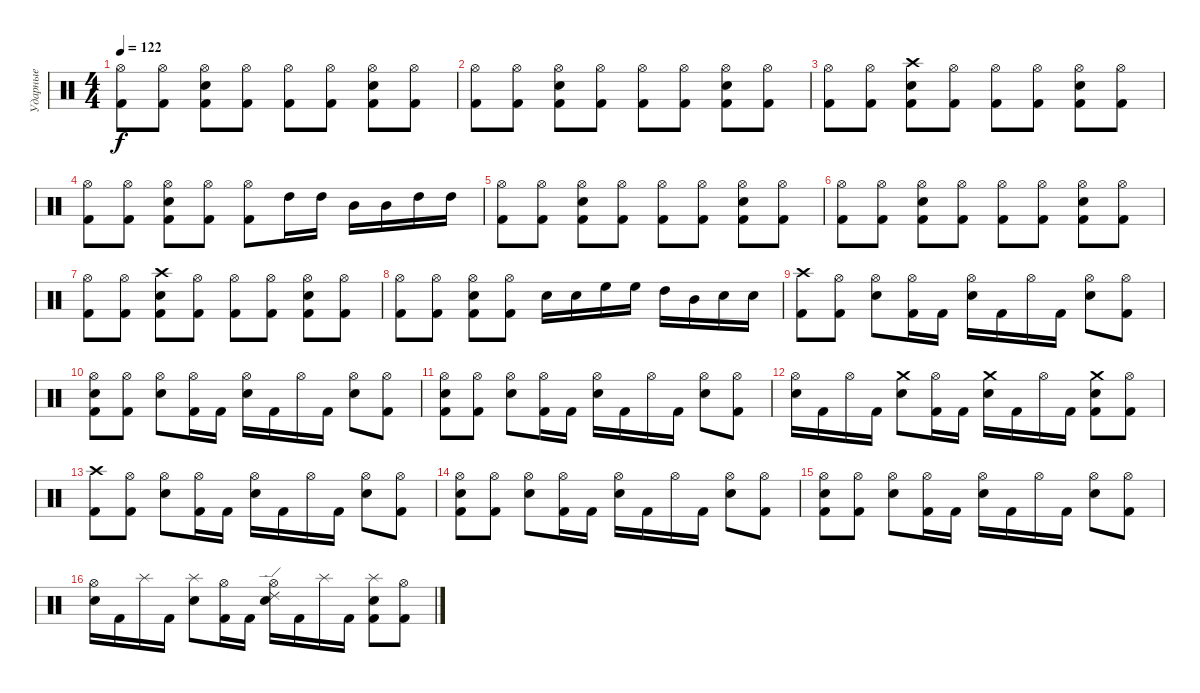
\track ("Ударные" "Ударные") {instrument percussion}
\staff {score}
\articulation defaults
\ts (4 4)
\tempo 122
\clef neutral
\ks c
("Kick (hit) 2" "Hi-Hat (open)").8{dy f} ("Kick (hit) 2" "Hi-Hat (open)").8 ("Kick (hit) 2" "Snare (hit) 2" "Hi-Hat (open)").8 ("Kick (hit) 2" "Hi-Hat (open)").8 ("Kick (hit) 2" "Hi-Hat (open)").8 ("Kick (hit) 2" "Hi-Hat (open)").8 ("Kick (hit) 2" "Snare (hit) 2" "Hi-Hat (open)").8 ("Kick (hit) 2" "Hi-Hat (open)").8 |
("Kick (hit) 2" "Hi-Hat (open)").8 ("Kick (hit) 2" "Hi-Hat (open)").8 ("Kick (hit) 2" "Snare (hit) 2" "Hi-Hat (open)").8 ("Kick (hit) 2" "Hi-Hat (open)").8 ("Kick (hit) 2" "Hi-Hat (open)").8 ("Kick (hit) 2" "Hi-Hat (open)").8 ("Kick (hit) 2" "Snare (hit) 2" "Hi-Hat (open)").8 ("Kick (hit) 2" "Hi-Hat (open)").8 |
("Kick (hit) 2" "Hi-Hat (open)").8 ("Kick (hit) 2" "Hi-Hat (open)").8 ("Kick (hit) 2" "Snare (hit) 2" "Crash high (hit)").8 ("Kick (hit) 2" "Hi-Hat (open)").8 ("Kick (hit) 2" "Hi-Hat (open)").8 ("Kick (hit) 2" "Hi-Hat (open)").8 ("Kick (hit) 2" "Snare (hit) 2" "Hi-Hat (open)").8 ("Kick (hit) 2" "Hi-Hat (open)").8 |
("Kick (hit) 2" "Hi-Hat (open)").8 ("Kick (hit) 2" "Hi-Hat (open)").8 ("Kick (hit) 2" "Snare (hit) 2" "Hi-Hat (open)").8 ("Kick (hit) 2" "Hi-Hat (open)").8 ("Kick (hit) 2" "Hi-Hat (open)").8 "High Tom (hit)".16 "High Tom (hit)".16 "Mid Tom (hit)".16 "Mid Tom (hit)".16 "High Tom (hit)".16 "High Tom (hit)".16 |
("Kick (hit) 2" "Hi-Hat (open)").8 ("Kick (hit) 2" "Hi-Hat (open)").8 ("Kick (hit) 2" "Snare (hit) 2" "Hi-Hat (open)").8 ("Kick (hit) 2" "Hi-Hat (open)").8 ("Kick (hit) 2" "Hi-Hat (open)").8 ("Kick (hit) 2" "Hi-Hat (open)").8 ("Kick (hit) 2" "Snare (hit) 2" "Hi-Hat (open)").8 ("Kick (hit) 2" "Hi-Hat (open)").8 |
("Kick (hit) 2" "Hi-Hat (open)").8 ("Kick (hit) 2" "Hi-Hat (open)").8 ("Kick (hit) 2" "Snare (hit) 2" "Hi-Hat (open)").8 ("Kick (hit) 2" "Hi-Hat (open)").8 ("Kick (hit) 2" "Hi-Hat (open)").8 ("Kick (hit) 2" "Hi-Hat (open)").8 ("Kick (hit) 2" "Snare (hit) 2" "Hi-Hat (open)").8 ("Kick (hit) 2" "Hi-Hat (open)").8 |
("Kick (hit) 2" "Hi-Hat (open)").8 ("Kick (hit) 2" "Hi-Hat (open)").8 ("Kick (hit) 2" "Snare (hit) 2" "Crash high (hit)").8 ("Kick (hit) 2" "Hi-Hat (open)").8 ("Kick (hit) 2" "Hi-Hat (open)").8 ("Kick (hit) 2" "Hi-Hat (open)").8 ("Kick (hit) 2" "Snare (hit) 2" "Hi-Hat (open)").8 ("Kick (hit) 2" "Hi-Hat (open)").8 |
("Kick (hit) 2" "Hi-Hat (open)").8 ("Kick (hit) 2" "Hi-Hat (open)").8 ("Kick (hit) 2" "Snare (hit) 2" "Hi-Hat (open)").8 ("Kick (hit) 2" "Hi-Hat (open)").8 "Snare (hit) 2".16 "Snare (hit) 2".16 "High Floor Tom (hit)".16 "High Floor Tom (hit)".16 "High Tom (hit)".16 "Mid Tom (hit)".16 "Snare (hit) 2".16 "Snare (hit) 2".16 |
("Kick (hit) 2" "Crash high (hit)").8 ("Hi-Hat (open)" "Kick (hit) 2").8 ("Hi-Hat (open)" "Snare (hit) 2").8 ("Hi-Hat (open)" "Kick (hit) 2").16 "Kick (hit) 2".16 ("Hi-Hat (open)" "Snare (hit) 2").16 "Kick (hit) 2".16 "Hi-Hat (open)".16 "Kick (hit) 2".16 ("Hi-Hat (open)" "Snare (hit) 2").8 ("Hi-Hat (open)" "Kick (hit) 2").8 |
("Snare (hit) 2" "Hi-Hat (open)" "Kick (hit) 2").8 ("Hi-Hat (open)" "Kick (hit) 2").8 ("Hi-Hat (open)" "Snare (hit) 2").8 ("Hi-Hat (open)" "Kick (hit) 2").16 "Kick (hit) 2".16 ("Hi-Hat (open)" "Snare (hit) 2").16 "Kick (hit) 2".16 "Hi-Hat (open)".16 "Kick (hit) 2".16 ("Hi-Hat (open)" "Snare (hit) 2").8 ("Hi-Hat (open)" "Kick (hit) 2").8 |
("Snare (hit) 2" "Hi-Hat (open)" "Kick (hit) 2").8 ("Hi-Hat (open)" "Kick (hit) 2").8 ("Hi-Hat (open)" "Snare (hit) 2").8 ("Hi-Hat (open)" "Kick (hit) 2").16 "Kick (hit) 2".16 ("Hi-Hat (open)" "Snare (hit) 2").16 "Kick (hit) 2".16 "Hi-Hat (open)".16 "Kick (hit) 2".16 ("Hi-Hat (open)" "Snare (hit) 2").8 ("Hi-Hat (open)" "Kick (hit) 2").8 |
("Hi-Hat (open)" "Snare (hit) 2").16 "Kick (hit) 2".16 "Hi-Hat (open)".16 "Kick (hit) 2".16 ("Crash medium (hit)" "Snare (hit) 2").8 ("Hi-Hat (open)" "Kick (hit) 2").16 "Kick (hit) 2".16 ("Crash medium (hit)" "Snare (hit) 2").16 "Kick (hit) 2".16 "Hi-Hat (open)".16 "Kick (hit) 2".16 ("Crash medium (hit)" "Kick (hit) 2" "Snare (hit) 2").8 ("Hi-Hat (open)" "Kick (hit) 2").8 |
("Kick (hit) 2" "Crash high (hit)").8 ("Hi-Hat (open)" "Kick (hit) 2").8 ("Hi-Hat (open)" "Snare (hit) 2").8 ("Hi-Hat (open)" "Kick (hit) 2").16 "Kick (hit) 2".16 ("Hi-Hat (open)" "Snare (hit) 2").16 "Kick (hit) 2".16 "Hi-Hat (open)".16 "Kick (hit) 2".16 ("Hi-Hat (open)" "Snare (hit) 2").8 ("Hi-Hat (open)" "Kick (hit) 2").8 |
("Snare (hit) 2" "Hi-Hat (open)" "Kick (hit) 2").8 ("Hi-Hat (open)" "Kick (hit) 2").8 ("Hi-Hat (open)" "Snare (hit) 2").8 ("Hi-Hat (open)" "Kick (hit) 2").16 "Kick (hit) 2".16 ("Hi-Hat (open)" "Snare (hit) 2").16 "Kick (hit) 2".16 "Hi-Hat (open)".16 "Kick (hit) 2".16 ("Hi-Hat (open)" "Snare (hit) 2").8 ("Hi-Hat (open)" "Kick (hit) 2").8 |
("Snare (hit) 2" "Hi-Hat (open)" "Kick (hit) 2").8 ("Hi-Hat (open)" "Kick (hit) 2").8 ("Hi-Hat (open)" "Snare (hit) 2").8 ("Hi-Hat (open)" "Kick (hit) 2").16 "Kick (hit) 2".16 ("Hi-Hat (open)" "Snare (hit) 2").16 "Kick (hit) 2".16 "Hi-Hat (open)".16 "Kick (hit) 2".16 ("Hi-Hat (open)" "Snare (hit) 2").8 ("Hi-Hat (open)" "Kick (hit) 2").8 |
("Hi-Hat (open)" "Snare (hit) 2").16 "Kick (hit) 2".16 "Splash (hit)".16 "Kick (hit) 2".16 ("Splash (hit)" "Snare (hit) 2").8 ("Hi-Hat (open)" "Kick (hit) 2").16 "Kick (hit) 2".16 ("Hi-Hat (open)" "Snare (hit) 2" "Ride (edge) 2").16 "Kick (hit) 2".16 "Splash (hit)".16 "Kick (hit) 2".16 ("Splash (hit)" "Kick (hit) 2" "Snare (hit) 2").8 ("Hi-Hat (open)" "Kick (hit) 2").8
